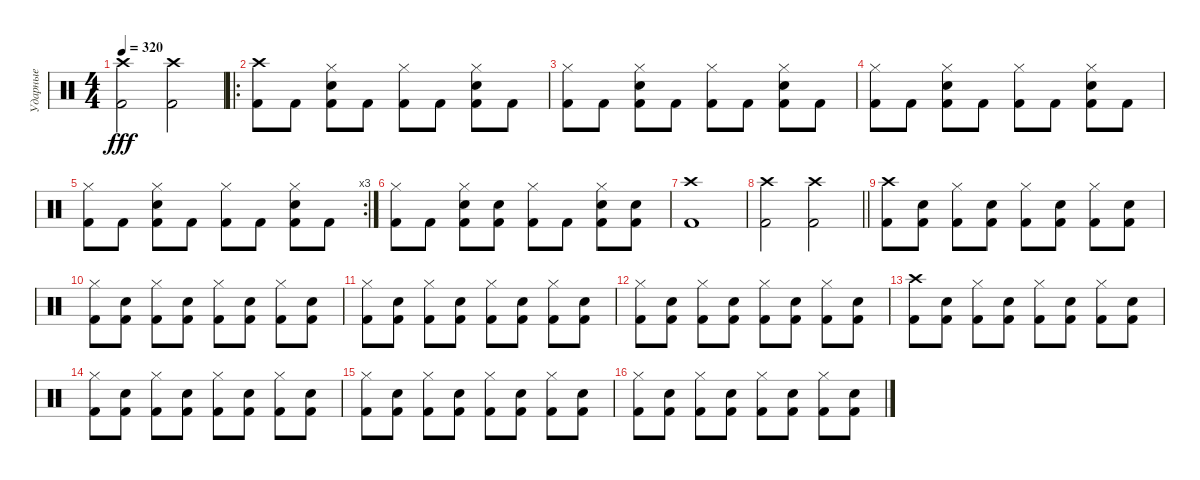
\track ("Ударные" "Ударные") {instrument percussion}
\staff {score}
\articulation defaults
\ts (4 4)
\tempo 320
\clef neutral
\ks c
("Kick (hit) 2" "Crash high (hit)").2{dy fff} ("Kick (hit) 2" "Crash high (hit)").2 |
\ro
("Kick (hit) 2" "Crash high (hit)").8 "Kick (hit) 2".8 ("Kick (hit) 2" "Snare (hit) 2" "Hi-Hat (closed)").8 "Kick (hit) 2".8 ("Kick (hit) 2" "Hi-Hat (closed)").8 "Kick (hit) 2".8 ("Kick (hit) 2" "Snare (hit) 2" "Hi-Hat (closed)").8 "Kick (hit) 2".8 |
("Kick (hit) 2" "Hi-Hat (closed)").8 "Kick (hit) 2".8 ("Kick (hit) 2" "Snare (hit) 2" "Hi-Hat (closed)").8 "Kick (hit) 2".8 ("Kick (hit) 2" "Hi-Hat (closed)").8 "Kick (hit) 2".8 ("Kick (hit) 2" "Snare (hit) 2" "Hi-Hat (closed)").8 "Kick (hit) 2".8 |
("Kick (hit) 2" "Hi-Hat (closed)").8 "Kick (hit) 2".8 ("Kick (hit) 2" "Snare (hit) 2" "Hi-Hat (closed)").8 "Kick (hit) 2".8 ("Kick (hit) 2" "Hi-Hat (closed)").8 "Kick (hit) 2".8 ("Kick (hit) 2" "Snare (hit) 2" "Hi-Hat (closed)").8 "Kick (hit) 2".8 |
\rc 3
("Kick (hit) 2" "Hi-Hat (closed)").8 "Kick (hit) 2".8 ("Kick (hit) 2" "Snare (hit) 2" "Hi-Hat (closed)").8 "Kick (hit) 2".8 ("Kick (hit) 2" "Hi-Hat (closed)").8 "Kick (hit) 2".8 ("Kick (hit) 2" "Snare (hit) 2" "Hi-Hat (closed)").8 "Kick (hit) 2".8 |
("Kick (hit) 2" "Hi-Hat (closed)").8 "Kick (hit) 2".8 ("Kick (hit) 2" "Snare (hit) 2" "Hi-Hat (closed)").8 ("Kick (hit) 2" "Snare (hit) 2").8 ("Kick (hit) 2" "Hi-Hat (closed)").8 "Kick (hit) 2".8 ("Kick (hit) 2" "Snare (hit) 2" "Hi-Hat (closed)").8 ("Kick (hit) 2" "Snare (hit) 2").8 |
("Kick (hit) 2" "Crash high (hit)").1 |
\barLineRight lightlight
("Kick (hit) 2" "Crash high (hit)").2 ("Kick (hit) 2" "Crash high (hit)").2 |
("Kick (hit) 2" "Crash high (hit)").8 ("Kick (hit) 2" "Snare (hit) 2").8 ("Kick (hit) 2" "Hi-Hat (closed)").8 ("Kick (hit) 2" "Snare (hit) 2").8 ("Kick (hit) 2" "Hi-Hat (closed)").8 ("Kick (hit) 2" "Snare (hit) 2").8 ("Kick (hit) 2" "Hi-Hat (closed)").8 ("Kick (hit) 2" "Snare (hit) 2").8 |
("Kick (hit) 2" "Hi-Hat (closed)").8 ("Kick (hit) 2" "Snare (hit) 2").8 ("Kick (hit) 2" "Hi-Hat (closed)").8 ("Kick (hit) 2" "Snare (hit) 2").8 ("Kick (hit) 2" "Hi-Hat (closed)").8 ("Kick (hit) 2" "Snare (hit) 2").8 ("Kick (hit) 2" "Hi-Hat (closed)").8 ("Kick (hit) 2" "Snare (hit) 2").8 |
("Kick (hit) 2" "Hi-Hat (closed)").8 ("Kick (hit) 2" "Snare (hit) 2").8 ("Kick (hit) 2" "Hi-Hat (closed)").8 ("Kick (hit) 2" "Snare (hit) 2").8 ("Kick (hit) 2" "Hi-Hat (closed)").8 ("Kick (hit) 2" "Snare (hit) 2").8 ("Kick (hit) 2" "Hi-Hat (closed)").8 ("Kick (hit) 2" "Snare (hit) 2").8 |
("Kick (hit) 2" "Hi-Hat (closed)").8 ("Kick (hit) 2" "Snare (hit) 2").8 ("Kick (hit) 2" "Hi-Hat (closed)").8 ("Kick (hit) 2" "Snare (hit) 2").8 ("Kick (hit) 2" "Hi-Hat (closed)").8 ("Kick (hit) 2" "Snare (hit) 2").8 ("Kick (hit) 2" "Hi-Hat (closed)").8 ("Kick (hit) 2" "Snare (hit) 2").8 |
("Kick (hit) 2" "Crash high (hit)").8 ("Kick (hit) 2" "Snare (hit) 2").8 ("Kick (hit) 2" "Hi-Hat (closed)").8 ("Kick (hit) 2" "Snare (hit) 2").8 ("Kick (hit) 2" "Hi-Hat (closed)").8 ("Kick (hit) 2" "Snare (hit) 2").8 ("Kick (hit) 2" "Hi-Hat (closed)").8 ("Kick (hit) 2" "Snare (hit) 2").8 |
("Kick (hit) 2" "Hi-Hat (closed)").8 ("Kick (hit) 2" "Snare (hit) 2").8 ("Kick (hit) 2" "Hi-Hat (closed)").8 ("Kick (hit) 2" "Snare (hit) 2").8 ("Kick (hit) 2" "Hi-Hat (closed)").8 ("Kick (hit) 2" "Snare (hit) 2").8 ("Kick (hit) 2" "Hi-Hat (closed)").8 ("Kick (hit) 2" "Snare (hit) 2").8 |
("Kick (hit) 2" "Hi-Hat (closed)").8 ("Kick (hit) 2" "Snare (hit) 2").8 ("Kick (hit) 2" "Hi-Hat (closed)").8 ("Kick (hit) 2" "Snare (hit) 2").8 ("Kick (hit) 2" "Hi-Hat (closed)").8 ("Kick (hit) 2" "Snare (hit) 2").8 ("Kick (hit) 2" "Hi-Hat (closed)").8 ("Kick (hit) 2" "Snare (hit) 2").8 |
("Kick (hit) 2" "Hi-Hat (closed)").8 ("Kick (hit) 2" "Snare (hit) 2").8 ("Kick (hit) 2" "Hi-Hat (closed)").8 ("Kick (hit) 2" "Snare (hit) 2").8 ("Kick (hit) 2" "Hi-Hat (closed)").8 ("Kick (hit) 2" "Snare (hit) 2").8 ("Kick (hit) 2" "Hi-Hat (closed)").8 ("Kick (hit) 2" "Snare (hit) 2").8
